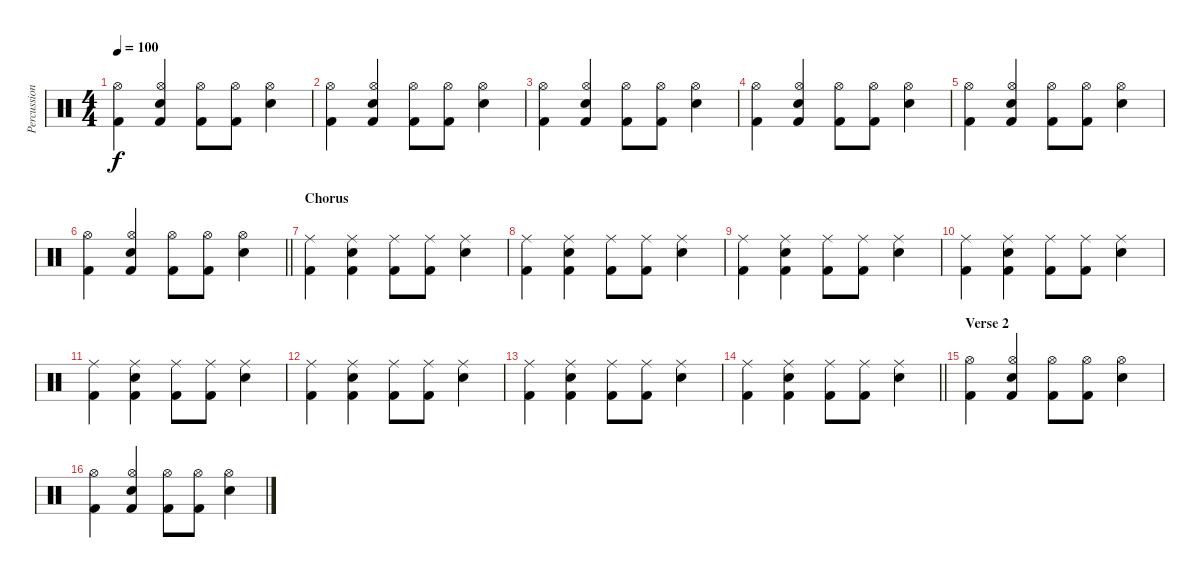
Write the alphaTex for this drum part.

\track ("Percussion" "Percussion") {instrument percussion}
\staff {score}
\articulation defaults
\ts (4 4)
\tempo 100
\clef neutral
\ks c
("Kick (hit) 2" "Hi-Hat (open)").4{dy f} ("Kick (hit) 2" "Snare (hit) 2" "Hi-Hat (open)").4 ("Kick (hit) 2" "Hi-Hat (open)").8 ("Kick (hit) 2" "Hi-Hat (open)").8 ("Snare (hit) 2" "Hi-Hat (open)").4 |
("Kick (hit) 2" "Hi-Hat (open)").4 ("Kick (hit) 2" "Snare (hit) 2" "Hi-Hat (open)").4 ("Kick (hit) 2" "Hi-Hat (open)").8 ("Kick (hit) 2" "Hi-Hat (open)").8 ("Snare (hit) 2" "Hi-Hat (open)").4 |
("Kick (hit) 2" "Hi-Hat (open)").4 ("Kick (hit) 2" "Snare (hit) 2" "Hi-Hat (open)").4 ("Kick (hit) 2" "Hi-Hat (open)").8 ("Kick (hit) 2" "Hi-Hat (open)").8 ("Snare (hit) 2" "Hi-Hat (open)").4 |
("Kick (hit) 2" "Hi-Hat (open)").4 ("Kick (hit) 2" "Snare (hit) 2" "Hi-Hat (open)").4 ("Kick (hit) 2" "Hi-Hat (open)").8 ("Kick (hit) 2" "Hi-Hat (open)").8 ("Snare (hit) 2" "Hi-Hat (open)").4 |
("Kick (hit) 2" "Hi-Hat (open)").4 ("Kick (hit) 2" "Snare (hit) 2" "Hi-Hat (open)").4 ("Kick (hit) 2" "Hi-Hat (open)").8 ("Kick (hit) 2" "Hi-Hat (open)").8 ("Snare (hit) 2" "Hi-Hat (open)").4 |
\barLineRight lightlight
("Kick (hit) 2" "Hi-Hat (open)").4 ("Kick (hit) 2" "Snare (hit) 2" "Hi-Hat (open)").4 ("Kick (hit) 2" "Hi-Hat (open)").8 ("Kick (hit) 2" "Hi-Hat (open)").8 ("Snare (hit) 2" "Hi-Hat (open)").4 |
\section ("" "Chorus")
("Kick (hit) 2" "Ride (middle)").4 ("Kick (hit) 2" "Snare (hit) 2" "Ride (middle)").4 ("Kick (hit) 2" "Ride (middle)").8 ("Kick (hit) 2" "Ride (middle)").8 ("Snare (hit) 2" "Ride (middle)").4 |
("Kick (hit) 2" "Ride (middle)").4 ("Kick (hit) 2" "Snare (hit) 2" "Ride (middle)").4 ("Kick (hit) 2" "Ride (middle)").8 ("Kick (hit) 2" "Ride (middle)").8 ("Snare (hit) 2" "Ride (middle)").4 |
("Kick (hit) 2" "Ride (middle)").4 ("Kick (hit) 2" "Snare (hit) 2" "Ride (middle)").4 ("Kick (hit) 2" "Ride (middle)").8 ("Kick (hit) 2" "Ride (middle)").8 ("Snare (hit) 2" "Ride (middle)").4 |
("Kick (hit) 2" "Ride (middle)").4 ("Kick (hit) 2" "Snare (hit) 2" "Ride (middle)").4 ("Kick (hit) 2" "Ride (middle)").8 ("Kick (hit) 2" "Ride (middle)").8 ("Snare (hit) 2" "Ride (middle)").4 |
("Kick (hit) 2" "Ride (middle)").4 ("Kick (hit) 2" "Snare (hit) 2" "Ride (middle)").4 ("Kick (hit) 2" "Ride (middle)").8 ("Kick (hit) 2" "Ride (middle)").8 ("Snare (hit) 2" "Ride (middle)").4 |
("Kick (hit) 2" "Ride (middle)").4 ("Kick (hit) 2" "Snare (hit) 2" "Ride (middle)").4 ("Kick (hit) 2" "Ride (middle)").8 ("Kick (hit) 2" "Ride (middle)").8 ("Snare (hit) 2" "Ride (middle)").4 |
("Kick (hit) 2" "Ride (middle)").4 ("Kick (hit) 2" "Snare (hit) 2" "Ride (middle)").4 ("Kick (hit) 2" "Ride (middle)").8 ("Kick (hit) 2" "Ride (middle)").8 ("Snare (hit) 2" "Ride (middle)").4 |
\barLineRight lightlight
("Kick (hit) 2" "Ride (middle)").4 ("Kick (hit) 2" "Snare (hit) 2" "Ride (middle)").4 ("Kick (hit) 2" "Ride (middle)").8 ("Kick (hit) 2" "Ride (middle)").8 ("Snare (hit) 2" "Ride (middle)").4 |
\section ("" "Verse 2")
("Kick (hit) 2" "Hi-Hat (open)").4 ("Kick (hit) 2" "Snare (hit) 2" "Hi-Hat (open)").4 ("Kick (hit) 2" "Hi-Hat (open)").8 ("Kick (hit) 2" "Hi-Hat (open)").8 ("Snare (hit) 2" "Hi-Hat (open)").4 |
("Kick (hit) 2" "Hi-Hat (open)").4 ("Kick (hit) 2" "Snare (hit) 2" "Hi-Hat (open)").4 ("Kick (hit) 2" "Hi-Hat (open)").8 ("Kick (hit) 2" "Hi-Hat (open)").8 ("Snare (hit) 2" "Hi-Hat (open)").4
